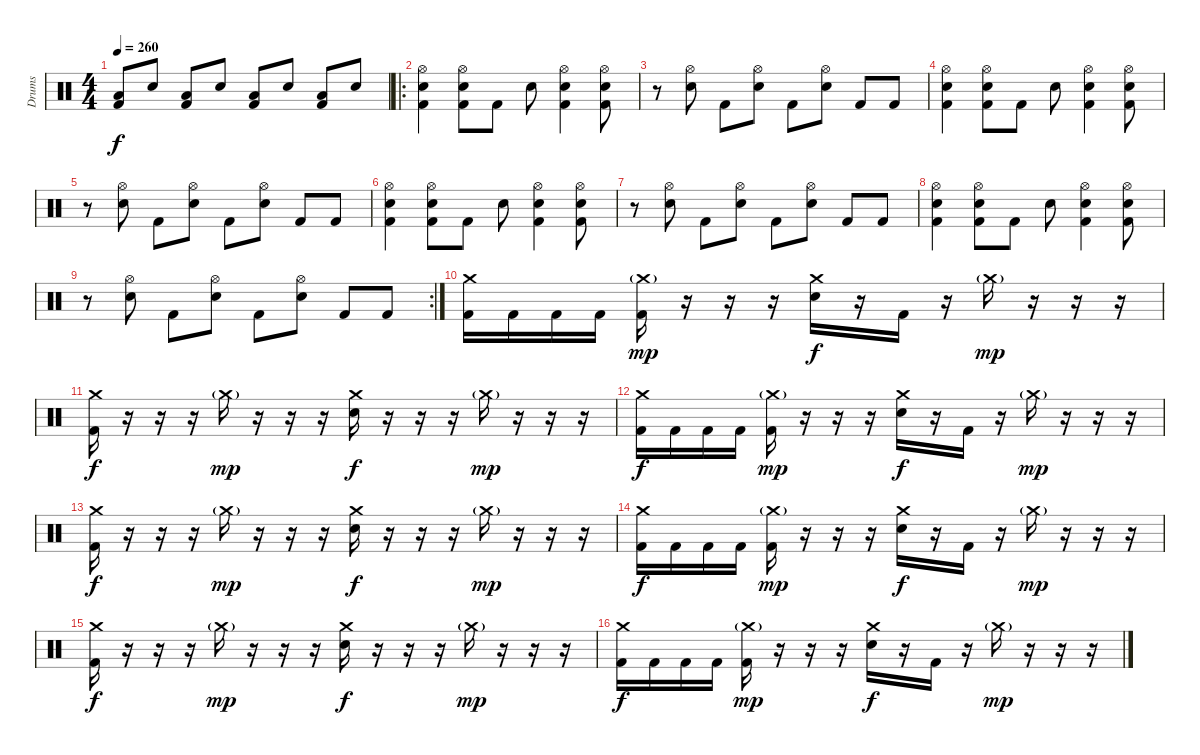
\track ("Drums" "Drums") {instrument percussion}
\staff {score}
\articulation defaults
\ts (4 4)
\tempo 260
\clef neutral
\ks c
("Kick (hit) 2" "Low Floor Tom (hit)").8{dy f} "Snare (hit) 2".8 ("Kick (hit) 2" "Low Floor Tom (hit)").8 "Snare (hit) 2".8 ("Kick (hit) 2" "Low Floor Tom (hit)").8 "Snare (hit) 2".8 ("Kick (hit) 2" "Low Floor Tom (hit)").8 "Snare (hit) 2".8 |
\ro
("Snare (hit) 2" "Hi-Hat (open)" "Kick (hit) 2").4 ("Snare (hit) 2" "Hi-Hat (open)" "Kick (hit) 2").8 "Kick (hit) 2".8 "Snare (hit) 2".8 ("Hi-Hat (open)" "Snare (hit) 2" "Kick (hit) 2").4 ("Hi-Hat (open)" "Snare (hit) 2" "Kick (hit) 2").8 |
r.8 ("Snare (hit) 2" "Hi-Hat (open)").8 "Kick (hit) 2".8 ("Snare (hit) 2" "Hi-Hat (open)").8 "Kick (hit) 2".8 ("Snare (hit) 2" "Hi-Hat (open)").8 "Kick (hit) 2".8 "Kick (hit) 2".8 |
("Snare (hit) 2" "Hi-Hat (open)" "Kick (hit) 2").4 ("Snare (hit) 2" "Hi-Hat (open)" "Kick (hit) 2").8 "Kick (hit) 2".8 "Snare (hit) 2".8 ("Hi-Hat (open)" "Snare (hit) 2" "Kick (hit) 2").4 ("Hi-Hat (open)" "Snare (hit) 2" "Kick (hit) 2").8 |
r.8 ("Snare (hit) 2" "Hi-Hat (open)").8 "Kick (hit) 2".8 ("Snare (hit) 2" "Hi-Hat (open)").8 "Kick (hit) 2".8 ("Snare (hit) 2" "Hi-Hat (open)").8 "Kick (hit) 2".8 "Kick (hit) 2".8 |
("Snare (hit) 2" "Hi-Hat (open)" "Kick (hit) 2").4 ("Snare (hit) 2" "Hi-Hat (open)" "Kick (hit) 2").8 "Kick (hit) 2".8 "Snare (hit) 2".8 ("Hi-Hat (open)" "Snare (hit) 2" "Kick (hit) 2").4 ("Hi-Hat (open)" "Snare (hit) 2" "Kick (hit) 2").8 |
r.8 ("Snare (hit) 2" "Hi-Hat (open)").8 "Kick (hit) 2".8 ("Snare (hit) 2" "Hi-Hat (open)").8 "Kick (hit) 2".8 ("Snare (hit) 2" "Hi-Hat (open)").8 "Kick (hit) 2".8 "Kick (hit) 2".8 |
("Snare (hit) 2" "Hi-Hat (open)" "Kick (hit) 2").4 ("Snare (hit) 2" "Hi-Hat (open)" "Kick (hit) 2").8 "Kick (hit) 2".8 "Snare (hit) 2".8 ("Hi-Hat (open)" "Snare (hit) 2" "Kick (hit) 2").4 ("Hi-Hat (open)" "Snare (hit) 2" "Kick (hit) 2").8 |
\rc 2
r.8 ("Snare (hit) 2" "Hi-Hat (open)").8 "Kick (hit) 2".8 ("Snare (hit) 2" "Hi-Hat (open)").8 "Kick (hit) 2".8 ("Snare (hit) 2" "Hi-Hat (open)").8 "Kick (hit) 2".8 "Kick (hit) 2".8 |
("Crash medium (hit)" "Kick (hit) 2").16 "Kick (hit) 2".16 "Kick (hit) 2".16 "Kick (hit) 2".16 ("Crash medium (hit)"{g} "Kick (hit) 2").16{dy mp} r.16 r.16 r.16 ("Crash medium (hit)" "Snare (hit) 2").16{dy f} r.16 "Kick (hit) 2".16 r.16 "Crash medium (hit)"{g}.16{dy mp} r.16 r.16 r.16 |
("Crash medium (hit)" "Kick (hit) 2").16{dy f} r.16 r.16 r.16 "Crash medium (hit)"{g}.16{dy mp} r.16 r.16 r.16 ("Crash medium (hit)" "Snare (hit) 2").16{dy f} r.16 r.16 r.16 "Crash medium (hit)"{g}.16{dy mp} r.16 r.16 r.16 |
("Crash medium (hit)" "Kick (hit) 2").16{dy f} "Kick (hit) 2".16 "Kick (hit) 2".16 "Kick (hit) 2".16 ("Crash medium (hit)"{g} "Kick (hit) 2").16{dy mp} r.16 r.16 r.16 ("Crash medium (hit)" "Snare (hit) 2").16{dy f} r.16 "Kick (hit) 2".16 r.16 "Crash medium (hit)"{g}.16{dy mp} r.16 r.16 r.16 |
("Crash medium (hit)" "Kick (hit) 2").16{dy f} r.16 r.16 r.16 "Crash medium (hit)"{g}.16{dy mp} r.16 r.16 r.16 ("Crash medium (hit)" "Snare (hit) 2").16{dy f} r.16 r.16 r.16 "Crash medium (hit)"{g}.16{dy mp} r.16 r.16 r.16 |
("Crash medium (hit)" "Kick (hit) 2").16{dy f} "Kick (hit) 2".16 "Kick (hit) 2".16 "Kick (hit) 2".16 ("Crash medium (hit)"{g} "Kick (hit) 2").16{dy mp} r.16 r.16 r.16 ("Crash medium (hit)" "Snare (hit) 2").16{dy f} r.16 "Kick (hit) 2".16 r.16 "Crash medium (hit)"{g}.16{dy mp} r.16 r.16 r.16 |
("Crash medium (hit)" "Kick (hit) 2").16{dy f} r.16 r.16 r.16 "Crash medium (hit)"{g}.16{dy mp} r.16 r.16 r.16 ("Crash medium (hit)" "Snare (hit) 2").16{dy f} r.16 r.16 r.16 "Crash medium (hit)"{g}.16{dy mp} r.16 r.16 r.16 |
("Crash medium (hit)" "Kick (hit) 2").16{dy f} "Kick (hit) 2".16 "Kick (hit) 2".16 "Kick (hit) 2".16 ("Crash medium (hit)"{g} "Kick (hit) 2").16{dy mp} r.16 r.16 r.16 ("Crash medium (hit)" "Snare (hit) 2").16{dy f} r.16 "Kick (hit) 2".16 r.16 "Crash medium (hit)"{g}.16{dy mp} r.16 r.16 r.16
